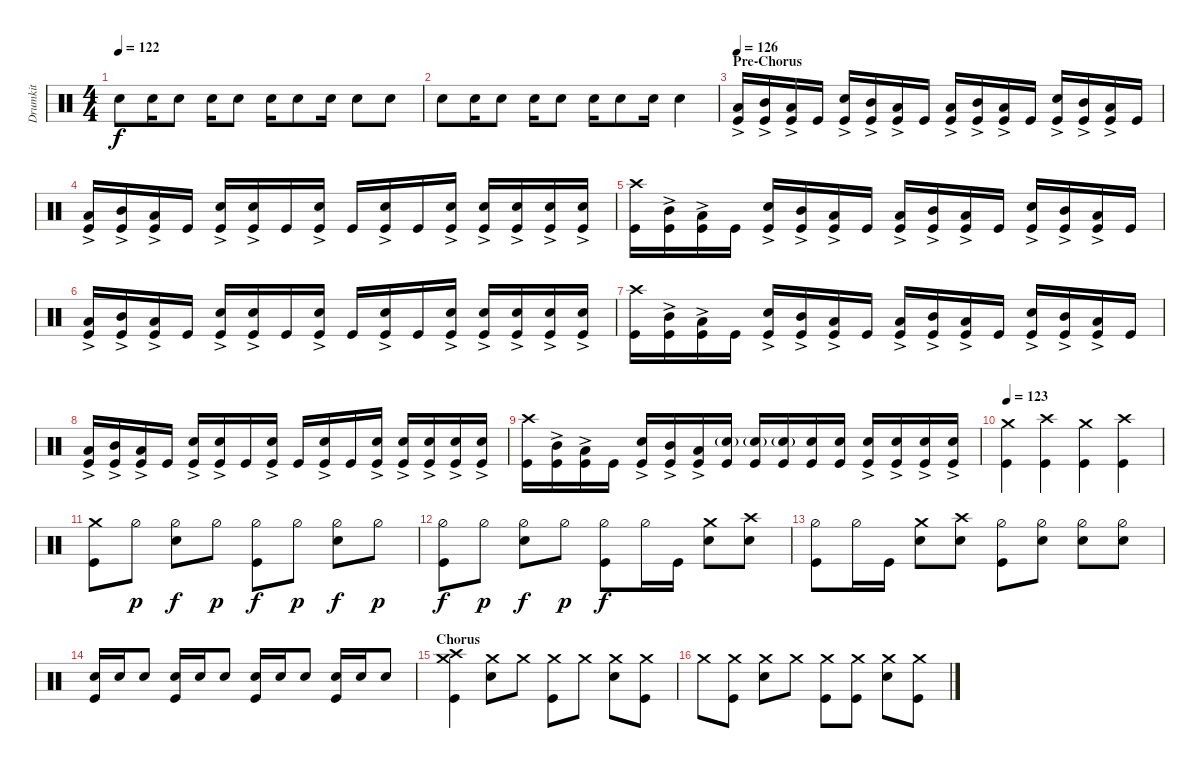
\track ("Drumkit" "Drumkit") {instrument percussion}
\staff {score}
\articulation defaults
\ts (4 4)
\tempo 122
\clef neutral
\ks c "Snare (hit) 2".8{dy f} "Snare (hit) 2".16 "Snare (hit) 2".8 "Snare (hit) 2".16 "Snare (hit) 2".8 "Snare (hit) 2".16 "Snare (hit) 2".8 "Snare (hit) 2".16 "Snare (hit) 2".8 "Snare (hit) 2".8
|
"Snare (hit) 2".8 "Snare (hit) 2".16 "Snare (hit) 2".8 "Snare (hit) 2".16 "Snare (hit) 2".8 "Snare (hit) 2".16 "Snare (hit) 2".8 "Snare (hit) 2".16 "Snare (hit) 2".4 |
\section ("" "Pre-Chorus")
\tempo 126
("Kick (hit)" "Low Tom (hit)"{ac}).16 ("Kick (hit)" "Mid Tom (hit)"{ac}).16 ("Kick (hit)" "Low Tom (hit)"{ac}).16 "Kick (hit)".16 ("Kick (hit)" "Snare (hit) 2"{ac}).16 ("Kick (hit)" "Mid Tom (hit)"{ac}).16 ("Kick (hit)" "Low Tom (hit)"{ac}).16 "Kick (hit)".16 ("Kick (hit)" "Low Tom (hit)"{ac}).16 ("Kick (hit)" "Mid Tom (hit)"{ac}).16 ("Kick (hit)" "Low Tom (hit)"{ac}).16 "Kick (hit)".16 ("Kick (hit)" "Snare (hit) 2"{ac}).16 ("Kick (hit)" "Mid Tom (hit)"{ac}).16 ("Kick (hit)" "Low Tom (hit)"{ac}).16 "Kick (hit)".16 |
("Kick (hit)" "Low Tom (hit)"{ac}).16 ("Kick (hit)" "Mid Tom (hit)"{ac}).16 ("Kick (hit)" "Low Tom (hit)"{ac}).16 "Kick (hit)".16 ("Kick (hit)" "Snare (hit) 2"{ac}).16 ("Kick (hit)" "Snare (hit) 2"{ac}).16 "Kick (hit)".16 ("Kick (hit)" "Snare (hit) 2"{ac}).16 "Kick (hit)".16 ("Kick (hit)" "Snare (hit) 2"{ac}).16 "Kick (hit)".16 ("Kick (hit)" "Snare (hit) 2"{ac}).16 ("Kick (hit)" "Snare (hit) 2"{ac}).16 ("Kick (hit)" "Snare (hit) 2"{ac}).16 ("Kick (hit)" "Snare (hit) 2"{ac}).16 ("Kick (hit)" "Snare (hit) 2"{ac}).16 |
("Kick (hit)" "Crash high (hit)").16 ("Kick (hit)" "Mid Tom (hit)"{ac}).16 ("Kick (hit)" "Low Tom (hit)"{ac}).16 "Kick (hit)".16 ("Kick (hit)" "Snare (hit) 2"{ac}).16 ("Kick (hit)" "Mid Tom (hit)"{ac}).16 ("Kick (hit)" "Low Tom (hit)"{ac}).16 "Kick (hit)".16 ("Kick (hit)" "Low Tom (hit)"{ac}).16 ("Kick (hit)" "Mid Tom (hit)"{ac}).16 ("Kick (hit)" "Low Tom (hit)"{ac}).16 "Kick (hit)".16 ("Kick (hit)" "Snare (hit) 2"{ac}).16 ("Kick (hit)" "Mid Tom (hit)"{ac}).16 ("Kick (hit)" "Low Tom (hit)"{ac}).16 "Kick (hit)".16 |
("Kick (hit)" "Low Tom (hit)"{ac}).16 ("Kick (hit)" "Mid Tom (hit)"{ac}).16 ("Kick (hit)" "Low Tom (hit)"{ac}).16 "Kick (hit)".16 ("Kick (hit)" "Snare (hit) 2"{ac}).16 ("Kick (hit)" "Snare (hit) 2"{ac}).16 "Kick (hit)".16 ("Kick (hit)" "Snare (hit) 2"{ac}).16 "Kick (hit)".16 ("Kick (hit)" "Snare (hit) 2"{ac}).16 "Kick (hit)".16 ("Kick (hit)" "Snare (hit) 2"{ac}).16 ("Kick (hit)" "Snare (hit) 2"{ac}).16 ("Kick (hit)" "Snare (hit) 2"{ac}).16 ("Kick (hit)" "Snare (hit) 2"{ac}).16 ("Kick (hit)" "Snare (hit) 2"{ac}).16 |
("Kick (hit)" "Crash high (hit)").16 ("Kick (hit)" "Mid Tom (hit)"{ac}).16 ("Kick (hit)" "Low Tom (hit)"{ac}).16 "Kick (hit)".16 ("Kick (hit)" "Snare (hit) 2"{ac}).16 ("Kick (hit)" "Mid Tom (hit)"{ac}).16 ("Kick (hit)" "Low Tom (hit)"{ac}).16 "Kick (hit)".16 ("Kick (hit)" "Low Tom (hit)"{ac}).16 ("Kick (hit)" "Mid Tom (hit)"{ac}).16 ("Kick (hit)" "Low Tom (hit)"{ac}).16 "Kick (hit)".16 ("Kick (hit)" "Snare (hit) 2"{ac}).16 ("Kick (hit)" "Mid Tom (hit)"{ac}).16 ("Kick (hit)" "Low Tom (hit)"{ac}).16 "Kick (hit)".16 |
("Kick (hit)" "Low Tom (hit)"{ac}).16 ("Kick (hit)" "Mid Tom (hit)"{ac}).16 ("Kick (hit)" "Low Tom (hit)"{ac}).16 "Kick (hit)".16 ("Kick (hit)" "Snare (hit) 2"{ac}).16 ("Kick (hit)" "Snare (hit) 2"{ac}).16 "Kick (hit)".16 ("Kick (hit)" "Snare (hit) 2"{ac}).16 "Kick (hit)".16 ("Kick (hit)" "Snare (hit) 2"{ac}).16 "Kick (hit)".16 ("Kick (hit)" "Snare (hit) 2"{ac}).16 ("Kick (hit)" "Snare (hit) 2"{ac}).16 ("Kick (hit)" "Snare (hit) 2"{ac}).16 ("Kick (hit)" "Snare (hit) 2"{ac}).16 ("Kick (hit)" "Snare (hit) 2"{ac}).16 |
("Kick (hit)" "Crash high (hit)").16 ("Kick (hit)" "Mid Tom (hit)"{ac}).16 ("Kick (hit)" "Low Tom (hit)"{ac}).16 "Kick (hit)".16 ("Kick (hit)" "Snare (hit) 2"{ac}).16 ("Kick (hit)" "Mid Tom (hit)"{ac}).16 ("Kick (hit)" "Low Tom (hit)"{ac}).16 ("Kick (hit)" "Snare (hit) 2"{g}).16 ("Kick (hit)" "Snare (hit) 2"{g}).16 ("Kick (hit)" "Snare (hit) 2"{g}).16 ("Kick (hit)" "Snare (hit) 2").16 ("Kick (hit)" "Snare (hit) 2").16 ("Kick (hit)" "Snare (hit) 2"{ac}).16 ("Kick (hit)" "Snare (hit) 2"{ac}).16 ("Kick (hit)" "Snare (hit) 2"{ac}).16 ("Kick (hit)" "Snare (hit) 2"{ac}).16 |
\tempo 123
("Crash medium (hit)" "Kick (hit)").4 ("Crash high (hit)" "Kick (hit)").4 ("Crash medium (hit)" "Kick (hit)").4 ("Crash high (hit)" "Kick (hit)").4 |
("Kick (hit)" "Crash medium (hit)").8 "Hi-Hat (half)".8{dy p} ("Hi-Hat (half)" "Snare (hit) 2").8{dy f} "Hi-Hat (half)".8{dy p} ("Hi-Hat (half)" "Kick (hit)").8{dy f} "Hi-Hat (half)".8{dy p} ("Hi-Hat (half)" "Snare (hit) 2").8{dy f} "Hi-Hat (half)".8{dy p} |
("Hi-Hat (half)" "Kick (hit)").8{dy f} "Hi-Hat (half)".8{dy p} ("Hi-Hat (half)" "Snare (hit) 2").8{dy f} "Hi-Hat (half)".8{dy p} ("Hi-Hat (half)" "Kick (hit)").8{dy f} "Hi-Hat (half)".16 "Kick (hit)".16 ("Snare (hit) 2" "Crash medium (hit)").8 ("Snare (hit) 2" "Crash high (hit)").8 |
("Hi-Hat (half)" "Kick (hit)").8 "Hi-Hat (half)".16 "Kick (hit)".16 ("Snare (hit) 2" "Crash medium (hit)").8 ("Snare (hit) 2" "Crash high (hit)").8 ("Hi-Hat (half)" "Kick (hit)").8 ("Hi-Hat (half)" "Snare (hit) 2").8 ("Snare (hit) 2" "Hi-Hat (half)").8 ("Snare (hit) 2" "Hi-Hat (half)").8 |
("Kick (hit)" "Snare (hit) 2").16 "Snare (hit) 2".16 "Snare (hit) 2".8 ("Kick (hit)" "Snare (hit) 2").16 "Snare (hit) 2".16 "Snare (hit) 2".8 ("Kick (hit)" "Snare (hit) 2").16 "Snare (hit) 2".16 "Snare (hit) 2".8 ("Kick (hit)" "Snare (hit) 2").16 "Snare (hit) 2".16 "Snare (hit) 2".8 |
\section ("" "Chorus")
("Kick (hit)" "Crash medium (hit)" "Crash high (hit)").4 ("Snare (hit) 2" "Crash medium (hit)").8 "Crash medium (hit)".8 ("Kick (hit)" "Crash medium (hit)").8 "Crash medium (hit)".8 ("Snare (hit) 2" "Crash medium (hit)").8 ("Crash medium (hit)" "Kick (hit)").8 |
"Crash medium (hit)".8 ("Crash medium (hit)" "Kick (hit)").8 ("Snare (hit) 2" "Crash medium (hit)").8 "Crash medium (hit)".8 ("Kick (hit)" "Crash medium (hit)").8 ("Crash medium (hit)" "Kick (hit)").8 ("Snare (hit) 2" "Crash medium (hit)").8 ("Crash medium (hit)" "Kick (hit)").8
